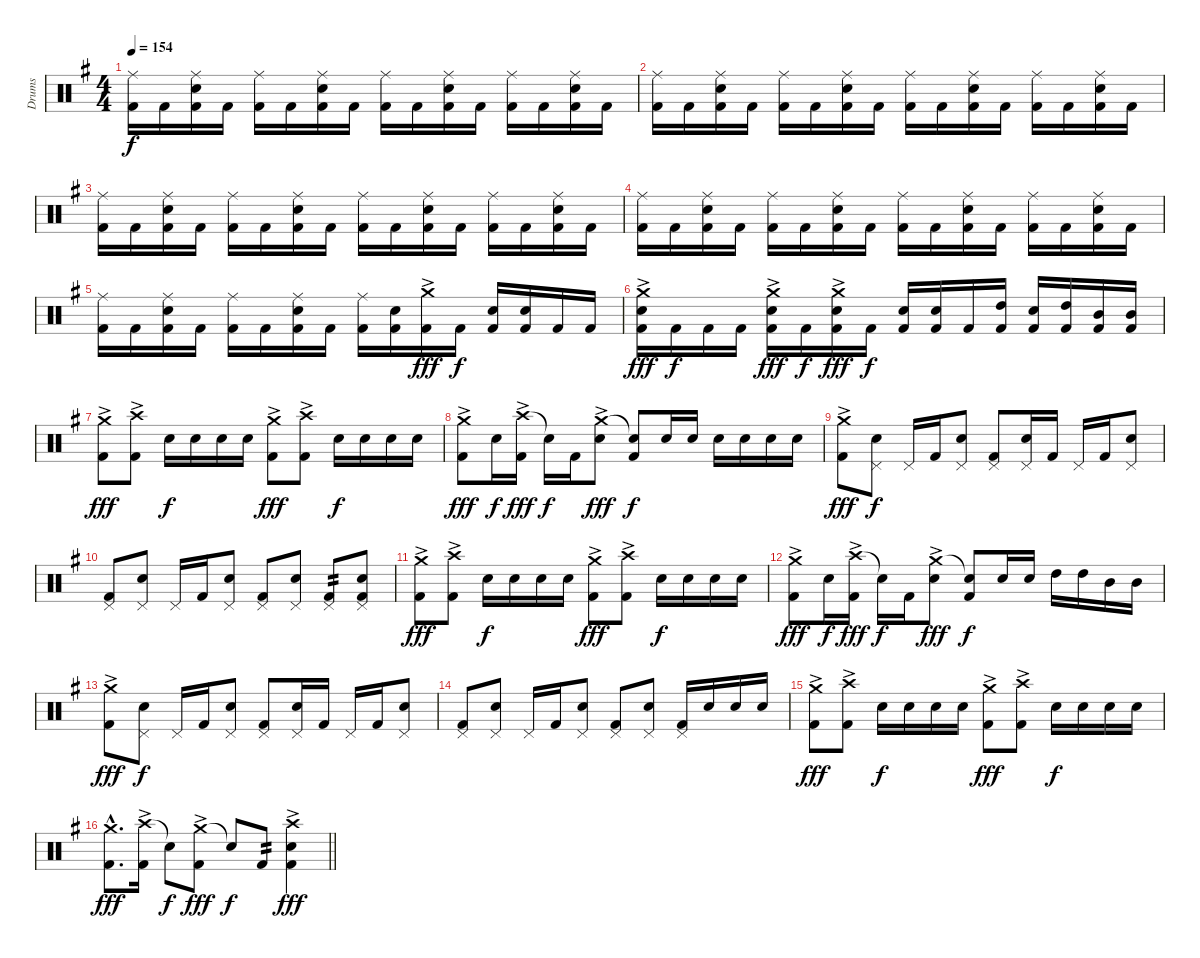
\track ("Drums" "Drums") {instrument percussion}
\staff {score}
\articulation defaults
\ts (4 4)
\tempo 154
\clef neutral
\ks g
("Ride (middle)" "Kick (hit) 2").16{dy f} "Kick (hit) 2".16 ("Ride (middle)" "Snare (hit) 2" "Kick (hit) 2").16 "Kick (hit) 2".16 ("Ride (middle)" "Kick (hit) 2").16 "Kick (hit) 2".16 ("Ride (middle)" "Snare (hit) 2" "Kick (hit) 2").16 "Kick (hit) 2".16 ("Ride (middle)" "Kick (hit) 2").16 "Kick (hit) 2".16 ("Ride (middle)" "Snare (hit) 2" "Kick (hit) 2").16 "Kick (hit) 2".16 ("Ride (middle)" "Kick (hit) 2").16 "Kick (hit) 2".16 ("Ride (middle)" "Snare (hit) 2" "Kick (hit) 2").16 "Kick (hit) 2".16 |
("Ride (middle)" "Kick (hit) 2").16 "Kick (hit) 2".16 ("Ride (middle)" "Snare (hit) 2" "Kick (hit) 2").16 "Kick (hit) 2".16 ("Ride (middle)" "Kick (hit) 2").16 "Kick (hit) 2".16 ("Ride (middle)" "Snare (hit) 2" "Kick (hit) 2").16 "Kick (hit) 2".16 ("Ride (middle)" "Kick (hit) 2").16 "Kick (hit) 2".16 ("Ride (middle)" "Snare (hit) 2" "Kick (hit) 2").16 "Kick (hit) 2".16 ("Ride (middle)" "Kick (hit) 2").16 "Kick (hit) 2".16 ("Ride (middle)" "Snare (hit) 2" "Kick (hit) 2").16 "Kick (hit) 2".16 |
("Ride (middle)" "Kick (hit) 2").16 "Kick (hit) 2".16 ("Ride (middle)" "Snare (hit) 2" "Kick (hit) 2").16 "Kick (hit) 2".16 ("Ride (middle)" "Kick (hit) 2").16 "Kick (hit) 2".16 ("Ride (middle)" "Snare (hit) 2" "Kick (hit) 2").16 "Kick (hit) 2".16 ("Ride (middle)" "Kick (hit) 2").16 "Kick (hit) 2".16 ("Ride (middle)" "Snare (hit) 2" "Kick (hit) 2").16 "Kick (hit) 2".16 ("Ride (middle)" "Kick (hit) 2").16 "Kick (hit) 2".16 ("Ride (middle)" "Snare (hit) 2" "Kick (hit) 2").16 "Kick (hit) 2".16 |
("Ride (middle)" "Kick (hit) 2").16 "Kick (hit) 2".16 ("Ride (middle)" "Snare (hit) 2" "Kick (hit) 2").16 "Kick (hit) 2".16 ("Ride (middle)" "Kick (hit) 2").16 "Kick (hit) 2".16 ("Ride (middle)" "Snare (hit) 2" "Kick (hit) 2").16 "Kick (hit) 2".16 ("Ride (middle)" "Kick (hit) 2").16 "Kick (hit) 2".16 ("Ride (middle)" "Snare (hit) 2" "Kick (hit) 2").16 "Kick (hit) 2".16 ("Ride (middle)" "Kick (hit) 2").16 "Kick (hit) 2".16 ("Ride (middle)" "Snare (hit) 2" "Kick (hit) 2").16 "Kick (hit) 2".16 |
("Ride (middle)" "Kick (hit) 2").16 "Kick (hit) 2".16 ("Ride (middle)" "Snare (hit) 2" "Kick (hit) 2").16 "Kick (hit) 2".16 ("Ride (middle)" "Kick (hit) 2").16 "Kick (hit) 2".16 ("Ride (middle)" "Snare (hit) 2" "Kick (hit) 2").16 "Kick (hit) 2".16 ("Ride (middle)" "Kick (hit) 2").16 ("Snare (hit) 2" "Kick (hit) 2").16 ("Crash medium (hit)"{ac} "Kick (hit) 2").16{dy fff} "Kick (hit) 2".16{dy f} ("Snare (hit) 2" "Kick (hit) 2").16 ("Snare (hit) 2" "Kick (hit) 2").16 "Kick (hit) 2".16 "Kick (hit) 2".16 |
("Crash medium (hit)"{ac} "Snare (hit) 2"{ac} "Kick (hit) 2"{ac}).16{dy fff} "Kick (hit) 2".16{dy f} "Kick (hit) 2".16 "Kick (hit) 2".16 ("Crash medium (hit)"{ac} "Snare (hit) 2"{ac} "Kick (hit) 2").16{dy fff} "Kick (hit) 2".16{dy f} ("Crash medium (hit)"{ac} "Snare (hit) 2"{ac} "Kick (hit) 2").16{dy fff} "Kick (hit) 2".16{dy f} ("Snare (hit) 2" "Kick (hit) 2").16 ("Snare (hit) 2" "Kick (hit) 2").16 "Kick (hit) 2".16 ("High Tom (hit)" "Kick (hit) 2").16 ("Snare (hit) 2" "Kick (hit) 2").16 ("High Tom (hit)" "Kick (hit) 2").16 ("Mid Tom (hit)" "Kick (hit) 2").16 ("Mid Tom (hit)" "Kick (hit) 2").16 |
("Crash medium (hit)"{ac} "Kick (hit) 2"{ac}).8{dy fff} ("Crash high (hit)"{ac} "Kick (hit) 2"{ac}).8 "Snare (hit) 2".16{dy f} "Snare (hit) 2".16 "Snare (hit) 2".16 "Snare (hit) 2".16 ("Crash medium (hit)"{ac} "Kick (hit) 2"{ac}).8{dy fff} ("Crash high (hit)"{ac} "Kick (hit) 2"{ac}).8 "Snare (hit) 2".16{dy f} "Snare (hit) 2".16 "Snare (hit) 2".16 "Snare (hit) 2".16 |
("Crash medium (hit)"{ac} "Kick (hit) 2"{ac}).8{dy fff} "Snare (hit) 2".16{dy f} ("Crash high (hit)"{ac} "Kick (hit) 2"{ac}).16{dy fff} "Snare (hit)"{t}.16{dy f} "Kick (hit) 2".16 ("Crash medium (hit)"{ac} "Snare (hit) 2"{ac}).8{dy fff} ("Snare (hit)"{t} "Kick (hit) 2").8{dy f} "Snare (hit) 2".16 "Snare (hit) 2".16 "Snare (hit) 2".16 "Snare (hit) 2".16 "Snare (hit) 2".16 "Snare (hit) 2".16 |
("Crash medium (hit)"{ac} "Kick (hit) 2"{ac}).8{dy fff} ("Pedal Hi-Hat (hit)" "Snare (hit) 2").8{dy f} "Pedal Hi-Hat (hit)".16 "Kick (hit) 2".16 ("Pedal Hi-Hat (hit)" "Snare (hit) 2").8 ("Pedal Hi-Hat (hit)" "Kick (hit) 2").8 ("Pedal Hi-Hat (hit)" "Snare (hit) 2").16 "Kick (hit) 2".16 "Pedal Hi-Hat (hit)".16 "Kick (hit) 2".16 ("Pedal Hi-Hat (hit)" "Snare (hit) 2").8 |
("Pedal Hi-Hat (hit)" "Kick (hit) 2").8 ("Pedal Hi-Hat (hit)" "Snare (hit) 2").8 "Pedal Hi-Hat (hit)".16 "Kick (hit) 2".16 ("Pedal Hi-Hat (hit)" "Snare (hit) 2").8 ("Pedal Hi-Hat (hit)" "Kick (hit) 2").8 ("Pedal Hi-Hat (hit)" "Snare (hit) 2").8 ("Pedal Hi-Hat (hit)" "Kick (hit) 2").8{tp 2} ("Pedal Hi-Hat (hit)" "Snare (hit) 2" "Kick (hit) 2").8 |
("Crash medium (hit)"{ac} "Kick (hit) 2"{ac}).8{dy fff} ("Crash high (hit)"{ac} "Kick (hit) 2"{ac}).8 "Snare (hit) 2".16{dy f} "Snare (hit) 2".16 "Snare (hit) 2".16 "Snare (hit) 2".16 ("Crash medium (hit)"{ac} "Kick (hit) 2"{ac}).8{dy fff} ("Crash high (hit)"{ac} "Kick (hit) 2"{ac}).8 "Snare (hit) 2".16{dy f} "Snare (hit) 2".16 "Snare (hit) 2".16 "Snare (hit) 2".16 |
("Crash medium (hit)"{ac} "Kick (hit) 2"{ac}).8{dy fff} "Snare (hit) 2".16{dy f} ("Crash high (hit)"{ac} "Kick (hit) 2"{ac}).16{dy fff} "Snare (hit)"{t}.16{dy f} "Kick (hit) 2".16 ("Crash medium (hit)"{ac} "Snare (hit) 2"{ac}).8{dy fff} ("Snare (hit)"{t} "Kick (hit) 2").8{dy f} "Snare (hit) 2".16 "Snare (hit) 2".16 "High Tom (hit)".16 "High Tom (hit)".16 "Mid Tom (hit)".16 "Mid Tom (hit)".16 |
("Crash medium (hit)"{ac} "Kick (hit) 2"{ac}).8{dy fff} ("Pedal Hi-Hat (hit)" "Snare (hit) 2").8{dy f} "Pedal Hi-Hat (hit)".16 "Kick (hit) 2".16 ("Pedal Hi-Hat (hit)" "Snare (hit) 2").8 ("Pedal Hi-Hat (hit)" "Kick (hit) 2").8 ("Pedal Hi-Hat (hit)" "Snare (hit) 2").16 "Kick (hit) 2".16 "Pedal Hi-Hat (hit)".16 "Kick (hit) 2".16 ("Pedal Hi-Hat (hit)" "Snare (hit) 2").8 |
("Pedal Hi-Hat (hit)" "Kick (hit) 2").8 ("Pedal Hi-Hat (hit)" "Snare (hit) 2").8 "Pedal Hi-Hat (hit)".16 "Kick (hit) 2".16 ("Pedal Hi-Hat (hit)" "Snare (hit) 2").8 ("Pedal Hi-Hat (hit)" "Kick (hit) 2").8 ("Pedal Hi-Hat (hit)" "Snare (hit) 2").8 ("Pedal Hi-Hat (hit)" "Kick (hit) 2").16 "Snare (hit) 2".16 "Snare (hit) 2".16 "Snare (hit) 2".16 |
("Crash medium (hit)"{ac} "Kick (hit) 2"{ac}).8{dy fff} ("Crash high (hit)"{ac} "Kick (hit) 2"{ac}).8 "Snare (hit) 2".16{dy f} "Snare (hit) 2".16 "Snare (hit) 2".16 "Snare (hit) 2".16 ("Crash medium (hit)"{ac} "Kick (hit) 2"{ac}).8{dy fff} ("Crash high (hit)"{ac} "Kick (hit) 2"{ac}).8 "Snare (hit) 2".16{dy f} "Snare (hit) 2".16 "Snare (hit) 2".16 "Snare (hit) 2".16 |
\barLineRight lightlight
("Crash medium (hit)"{hac} "Kick (hit) 2"{hac}).8{d dy fff} ("Crash high (hit)"{ac} "Kick (hit) 2"{ac}).16 "Snare (hit)"{t}.8{dy f} ("Crash medium (hit)"{ac} "Kick (hit) 2"{ac}).8{dy fff} "Snare (hit)"{t}.8{dy f} "Kick (hit) 2".8{tp 2} ("Crash high (hit)"{ac} "Snare (hit) 2"{ac} "Kick (hit) 2"{ac}).4{dy fff}
